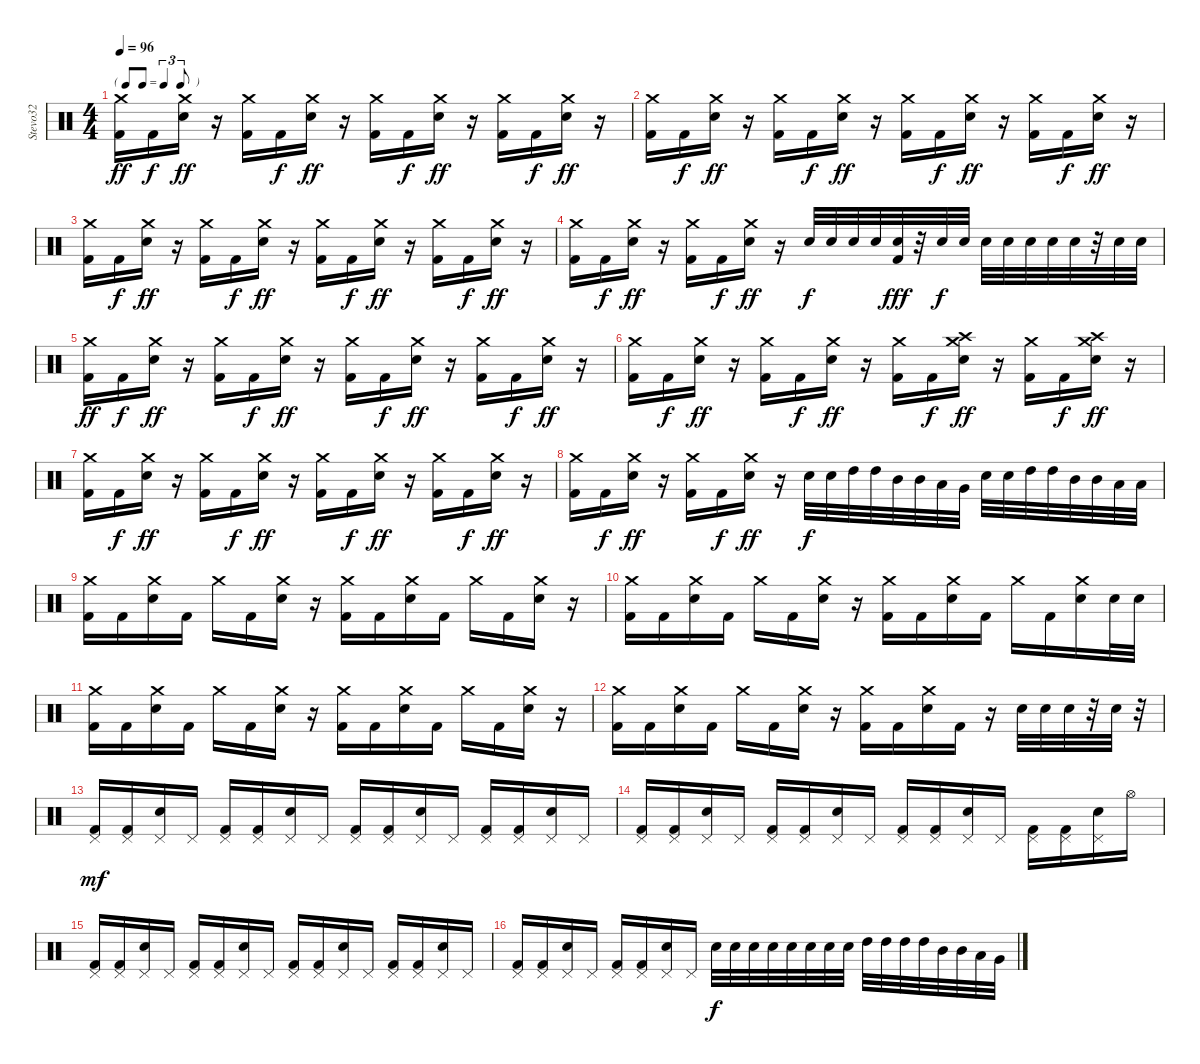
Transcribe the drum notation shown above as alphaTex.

\track ("Stevo32" "Stevo32") {instrument percussion}
\staff {score}
\articulation defaults
\ts (4 4)
\tf triplet8th
\tempo 96
\clef neutral
\ks c
("Crash medium (hit)" "Kick (hit) 2").16{dy ff} "Kick (hit) 2".16{dy f} ("Crash medium (hit)" "Electric Snare (hit)").16{dy ff} r.16 ("Crash medium (hit)" "Kick (hit) 2").16 "Kick (hit) 2".16{dy f} ("Crash medium (hit)" "Electric Snare (hit)").16{dy ff} r.16 ("Crash medium (hit)" "Kick (hit) 2").16 "Kick (hit) 2".16{dy f} ("Crash medium (hit)" "Electric Snare (hit)").16{dy ff} r.16 ("Crash medium (hit)" "Kick (hit) 2").16 "Kick (hit) 2".16{dy f} ("Crash medium (hit)" "Electric Snare (hit)").16{dy ff} r.16 |
("Crash medium (hit)" "Kick (hit) 2").16 "Kick (hit) 2".16{dy f} ("Crash medium (hit)" "Electric Snare (hit)").16{dy ff} r.16 ("Crash medium (hit)" "Kick (hit) 2").16 "Kick (hit) 2".16{dy f} ("Crash medium (hit)" "Electric Snare (hit)").16{dy ff} r.16 ("Crash medium (hit)" "Kick (hit) 2").16 "Kick (hit) 2".16{dy f} ("Crash medium (hit)" "Electric Snare (hit)").16{dy ff} r.16 ("Crash medium (hit)" "Kick (hit) 2").16 "Kick (hit) 2".16{dy f} ("Crash medium (hit)" "Electric Snare (hit)").16{dy ff} r.16 |
("Crash medium (hit)" "Kick (hit) 2").16 "Kick (hit) 2".16{dy f} ("Crash medium (hit)" "Electric Snare (hit)").16{dy ff} r.16 ("Crash medium (hit)" "Kick (hit) 2").16 "Kick (hit) 2".16{dy f} ("Crash medium (hit)" "Electric Snare (hit)").16{dy ff} r.16 ("Crash medium (hit)" "Kick (hit) 2").16 "Kick (hit) 2".16{dy f} ("Crash medium (hit)" "Electric Snare (hit)").16{dy ff} r.16 ("Crash medium (hit)" "Kick (hit) 2").16 "Kick (hit) 2".16{dy f} ("Crash medium (hit)" "Electric Snare (hit)").16{dy ff} r.16 |
("Crash medium (hit)" "Kick (hit) 2").16 "Kick (hit) 2".16{dy f} ("Electric Snare (hit)" "Crash medium (hit)").16{dy ff} r.16 ("Crash medium (hit)" "Kick (hit) 2").16 "Kick (hit) 2".16{dy f} ("Crash medium (hit)" "Electric Snare (hit)").16{dy ff} r.16 "Electric Snare (hit)".32{dy f} "Electric Snare (hit)".32 "Electric Snare (hit)".32 "Electric Snare (hit)".32 ("Kick (hit) 2" "Electric Snare (hit)").32{dy fff} r.32 "Electric Snare (hit)".32{dy f} "Electric Snare (hit)".32 "Electric Snare (hit)".32 "Electric Snare (hit)".32 "Electric Snare (hit)".32 "Electric Snare (hit)".32 "Electric Snare (hit)".32 r.32 "Electric Snare (hit)".32 "Electric Snare (hit)".32 |
("Crash medium (hit)" "Kick (hit) 2").16{dy ff} "Kick (hit) 2".16{dy f} ("Crash medium (hit)" "Electric Snare (hit)").16{dy ff} r.16 ("Crash medium (hit)" "Kick (hit) 2").16 "Kick (hit) 2".16{dy f} ("Crash medium (hit)" "Electric Snare (hit)").16{dy ff} r.16 ("Crash medium (hit)" "Kick (hit) 2").16 "Kick (hit) 2".16{dy f} ("Crash medium (hit)" "Electric Snare (hit)").16{dy ff} r.16 ("Crash medium (hit)" "Kick (hit) 2").16 "Kick (hit) 2".16{dy f} ("Crash medium (hit)" "Electric Snare (hit)").16{dy ff} r.16 |
("Crash medium (hit)" "Kick (hit) 2").16 "Kick (hit) 2".16{dy f} ("Crash medium (hit)" "Electric Snare (hit)").16{dy ff} r.16 ("Crash medium (hit)" "Kick (hit) 2").16 "Kick (hit) 2".16{dy f} ("Crash medium (hit)" "Electric Snare (hit)").16{dy ff} r.16 ("Crash medium (hit)" "Kick (hit) 2").16 "Kick (hit) 2".16{dy f} ("Crash high (hit)" "Crash medium (hit)" "Electric Snare (hit)").16{dy ff} r.16 ("Crash medium (hit)" "Kick (hit) 2").16 "Kick (hit) 2".16{dy f} ("Crash high (hit)" "Crash medium (hit)" "Electric Snare (hit)").16{dy ff} r.16 |
("Crash medium (hit)" "Kick (hit) 2").16 "Kick (hit) 2".16{dy f} ("Crash medium (hit)" "Electric Snare (hit)").16{dy ff} r.16 ("Crash medium (hit)" "Kick (hit) 2").16 "Kick (hit) 2".16{dy f} ("Crash medium (hit)" "Electric Snare (hit)").16{dy ff} r.16 ("Crash medium (hit)" "Kick (hit) 2").16 "Kick (hit) 2".16{dy f} ("Crash medium (hit)" "Electric Snare (hit)").16{dy ff} r.16 ("Crash medium (hit)" "Kick (hit) 2").16 "Kick (hit) 2".16{dy f} ("Crash medium (hit)" "Electric Snare (hit)").16{dy ff} r.16 |
("Crash medium (hit)" "Kick (hit) 2").16 "Kick (hit) 2".16{dy f} ("Crash medium (hit)" "Electric Snare (hit)").16{dy ff} r.16 ("Crash medium (hit)" "Kick (hit) 2").16 "Kick (hit) 2".16{dy f} ("Crash medium (hit)" "Electric Snare (hit)").16{dy ff} r.16 "Electric Snare (hit)".32{dy f} "Electric Snare (hit)".32 "High Tom (hit)".32 "High Tom (hit)".32 "Mid Tom (hit)".32 "Mid Tom (hit)".32 "Low Tom (hit)".32 "Very Low Tom (hit)".32 "Electric Snare (hit)".32 "Electric Snare (hit)".32 "High Tom (hit)".32 "High Tom (hit)".32 "Mid Tom (hit)".32 "Mid Tom (hit)".32 "Low Tom (hit)".32 "Low Tom (hit)".32 |
("Crash medium (hit)" "Kick (hit) 2").16 "Kick (hit) 2".16 ("Crash medium (hit)" "Electric Snare (hit)").16 "Kick (hit) 2".16 "Crash medium (hit)".16 "Kick (hit) 2".16 ("Crash medium (hit)" "Electric Snare (hit)").16 r.16 ("Crash medium (hit)" "Kick (hit) 2").16 "Kick (hit) 2".16 ("Crash medium (hit)" "Electric Snare (hit)").16 "Kick (hit) 2".16 "Crash medium (hit)".16 "Kick (hit) 2".16 ("Crash medium (hit)" "Electric Snare (hit)").16 r.16 |
("Crash medium (hit)" "Kick (hit) 2").16 "Kick (hit) 2".16 ("Crash medium (hit)" "Electric Snare (hit)").16 "Kick (hit) 2".16 "Crash medium (hit)".16 "Kick (hit) 2".16 ("Crash medium (hit)" "Electric Snare (hit)").16 r.16 ("Crash medium (hit)" "Kick (hit) 2").16 "Kick (hit) 2".16 ("Crash medium (hit)" "Electric Snare (hit)").16 "Kick (hit) 2".16 "Crash medium (hit)".16 "Kick (hit) 2".16 ("Crash medium (hit)" "Electric Snare (hit)").16 "Electric Snare (hit)".32 "Electric Snare (hit)".32 |
("Crash medium (hit)" "Kick (hit) 2").16 "Kick (hit) 2".16 ("Crash medium (hit)" "Electric Snare (hit)").16 "Kick (hit) 2".16 "Crash medium (hit)".16 "Kick (hit) 2".16 ("Crash medium (hit)" "Electric Snare (hit)").16 r.16 ("Crash medium (hit)" "Kick (hit) 2").16 "Kick (hit) 2".16 ("Crash medium (hit)" "Electric Snare (hit)").16 "Kick (hit) 2".16 "Crash medium (hit)".16 "Kick (hit) 2".16 ("Crash medium (hit)" "Electric Snare (hit)").16 r.16 |
("Crash medium (hit)" "Kick (hit) 2").16 "Kick (hit) 2".16 ("Crash medium (hit)" "Electric Snare (hit)").16 "Kick (hit) 2".16 "Crash medium (hit)".16 "Kick (hit) 2".16 ("Crash medium (hit)" "Electric Snare (hit)").16 r.16 ("Crash medium (hit)" "Kick (hit) 2").16 "Kick (hit) 2".16 ("Crash medium (hit)" "Electric Snare (hit)").16 "Kick (hit) 2".16 r.16 "Electric Snare (hit)".32 "Electric Snare (hit)".32 "Electric Snare (hit)".32 r.32 "Electric Snare (hit)".32 r.32 |
("Pedal Hi-Hat (hit)" "Kick (hit) 2").16{dy mf} ("Pedal Hi-Hat (hit)" "Kick (hit) 2").16 ("Pedal Hi-Hat (hit)" "Electric Snare (hit)").16 "Pedal Hi-Hat (hit)".16 ("Pedal Hi-Hat (hit)" "Kick (hit) 2").16 ("Pedal Hi-Hat (hit)" "Kick (hit) 2").16 ("Pedal Hi-Hat (hit)" "Electric Snare (hit)").16 "Pedal Hi-Hat (hit)".16 ("Pedal Hi-Hat (hit)" "Kick (hit) 2").16 ("Pedal Hi-Hat (hit)" "Kick (hit) 2").16 ("Pedal Hi-Hat (hit)" "Electric Snare (hit)").16 "Pedal Hi-Hat (hit)".16 ("Pedal Hi-Hat (hit)" "Kick (hit) 2").16 ("Pedal Hi-Hat (hit)" "Kick (hit) 2").16 ("Pedal Hi-Hat (hit)" "Electric Snare (hit)").16 "Pedal Hi-Hat (hit)".16 |
("Pedal Hi-Hat (hit)" "Kick (hit) 2").16 ("Pedal Hi-Hat (hit)" "Kick (hit) 2").16 ("Pedal Hi-Hat (hit)" "Electric Snare (hit)").16 "Pedal Hi-Hat (hit)".16 ("Pedal Hi-Hat (hit)" "Kick (hit) 2").16 ("Pedal Hi-Hat (hit)" "Kick (hit) 2").16 ("Pedal Hi-Hat (hit)" "Electric Snare (hit)").16 "Pedal Hi-Hat (hit)".16 ("Pedal Hi-Hat (hit)" "Kick (hit) 2").16 ("Pedal Hi-Hat (hit)" "Kick (hit) 2").16 ("Pedal Hi-Hat (hit)" "Electric Snare (hit)").16 "Pedal Hi-Hat (hit)".16 ("Pedal Hi-Hat (hit)" "Kick (hit) 2").16 ("Pedal Hi-Hat (hit)" "Kick (hit) 2").16 ("Pedal Hi-Hat (hit)" "Electric Snare (hit)").16 "Hi-Hat (open)".16 |
("Pedal Hi-Hat (hit)" "Kick (hit) 2").16 ("Pedal Hi-Hat (hit)" "Kick (hit) 2").16 ("Pedal Hi-Hat (hit)" "Electric Snare (hit)").16 "Pedal Hi-Hat (hit)".16 ("Pedal Hi-Hat (hit)" "Kick (hit) 2").16 ("Pedal Hi-Hat (hit)" "Kick (hit) 2").16 ("Pedal Hi-Hat (hit)" "Electric Snare (hit)").16 "Pedal Hi-Hat (hit)".16 ("Pedal Hi-Hat (hit)" "Kick (hit) 2").16 ("Pedal Hi-Hat (hit)" "Kick (hit) 2").16 ("Pedal Hi-Hat (hit)" "Electric Snare (hit)").16 "Pedal Hi-Hat (hit)".16 ("Pedal Hi-Hat (hit)" "Kick (hit) 2").16 ("Pedal Hi-Hat (hit)" "Kick (hit) 2").16 ("Pedal Hi-Hat (hit)" "Electric Snare (hit)").16 "Pedal Hi-Hat (hit)".16 |
("Pedal Hi-Hat (hit)" "Kick (hit) 2").16 ("Pedal Hi-Hat (hit)" "Kick (hit) 2").16 ("Pedal Hi-Hat (hit)" "Electric Snare (hit)").16 "Pedal Hi-Hat (hit)".16 ("Pedal Hi-Hat (hit)" "Kick (hit) 2").16 ("Pedal Hi-Hat (hit)" "Kick (hit) 2").16 ("Pedal Hi-Hat (hit)" "Electric Snare (hit)").16 "Pedal Hi-Hat (hit)".16 "Electric Snare (hit)".32{dy f} "Electric Snare (hit)".32 "Electric Snare (hit)".32 "Electric Snare (hit)".32 "Electric Snare (hit)".32 "Electric Snare (hit)".32 "Electric Snare (hit)".32 "Electric Snare (hit)".32 "High Tom (hit)".32 "High Tom (hit)".32 "High Tom (hit)".32 "High Tom (hit)".32 "Mid Tom (hit)".32 "Mid Tom (hit)".32 "Low Tom (hit)".32 "Very Low Tom (hit)".32
